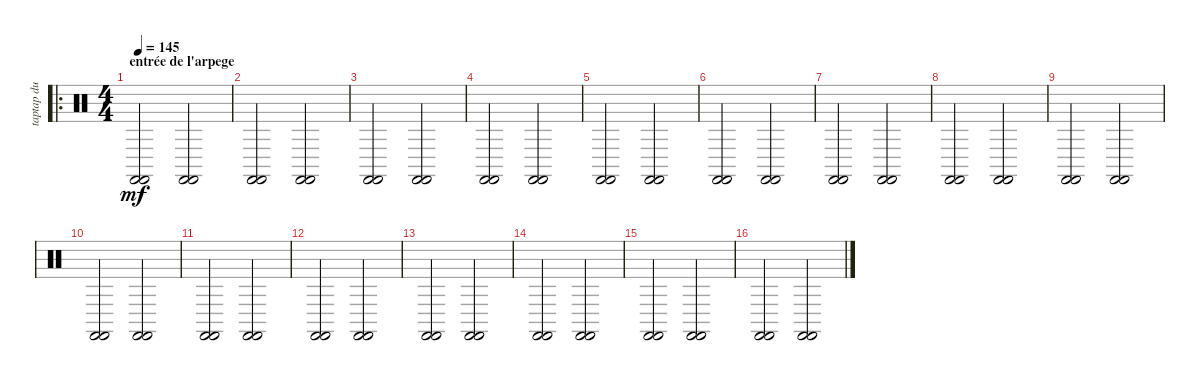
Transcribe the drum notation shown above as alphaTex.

\track ("taptap du pied" "taptap du ") {instrument percussion}
\staff {score}
\articulation defaults
\ro
\ts (4 4)
\section ("" "entrée de l'arpege")
\tempo 145
\clef neutral
\ks c
("Castanets (hit)" "Castanets (hit)").2{dy mf} ("Castanets (hit)" "Castanets (hit)").2 |
("Castanets (hit)" "Castanets (hit)").2 ("Castanets (hit)" "Castanets (hit)").2 |
("Castanets (hit)" "Castanets (hit)").2 ("Castanets (hit)" "Castanets (hit)").2 |
("Castanets (hit)" "Castanets (hit)").2 ("Castanets (hit)" "Castanets (hit)").2 |
("Castanets (hit)" "Castanets (hit)").2 ("Castanets (hit)" "Castanets (hit)").2 |
("Castanets (hit)" "Castanets (hit)").2 ("Castanets (hit)" "Castanets (hit)").2 |
("Castanets (hit)" "Castanets (hit)").2 ("Castanets (hit)" "Castanets (hit)").2 |
("Castanets (hit)" "Castanets (hit)").2 ("Castanets (hit)" "Castanets (hit)").2 |
("Castanets (hit)" "Castanets (hit)").2 ("Castanets (hit)" "Castanets (hit)").2 |
("Castanets (hit)" "Castanets (hit)").2 ("Castanets (hit)" "Castanets (hit)").2 |
("Castanets (hit)" "Castanets (hit)").2 ("Castanets (hit)" "Castanets (hit)").2 |
("Castanets (hit)" "Castanets (hit)").2 ("Castanets (hit)" "Castanets (hit)").2 |
("Castanets (hit)" "Castanets (hit)").2 ("Castanets (hit)" "Castanets (hit)").2 |
("Castanets (hit)" "Castanets (hit)").2 ("Castanets (hit)" "Castanets (hit)").2 |
("Castanets (hit)" "Castanets (hit)").2 ("Castanets (hit)" "Castanets (hit)").2 |
("Castanets (hit)" "Castanets (hit)").2 ("Castanets (hit)" "Castanets (hit)").2
